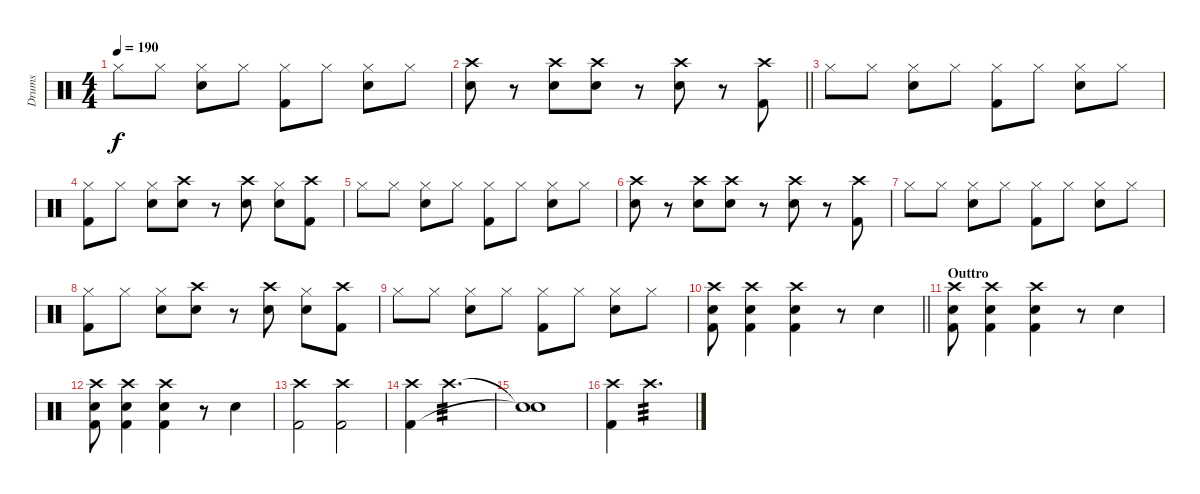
\track ("Drums" "Drums") {instrument percussion}
\staff {score}
\articulation defaults
\ts (4 4)
\tempo 190
\clef neutral
\ks c "Hi-Hat (closed)".8{dy f} "Hi-Hat (closed)".8
("Hi-Hat (closed)" "Snare (hit) 2").8 "Hi-Hat (closed)".8 ("Hi-Hat (closed)" "Kick (hit) 2").8 "Hi-Hat (closed)".8 ("Hi-Hat (closed)" "Snare (hit) 2").8 "Hi-Hat (closed)".8 |
\barLineRight lightlight
("Crash high (hit)" "Snare (hit) 2").8 r.8 ("Crash high (hit)" "Snare (hit) 2").8 ("Crash high (hit)" "Snare (hit) 2").8 r.8 ("Crash high (hit)" "Snare (hit) 2").8 r.8 ("Crash high (hit)" "Kick (hit) 2").8 |
"Hi-Hat (closed)".8 "Hi-Hat (closed)".8 ("Hi-Hat (closed)" "Snare (hit) 2").8 "Hi-Hat (closed)".8 ("Hi-Hat (closed)" "Kick (hit) 2").8 "Hi-Hat (closed)".8 ("Hi-Hat (closed)" "Snare (hit) 2").8 "Hi-Hat (closed)".8 |
("Hi-Hat (closed)" "Kick (hit) 2").8 "Hi-Hat (closed)".8 ("Hi-Hat (closed)" "Snare (hit) 2").8 ("Crash high (hit)" "Snare (hit) 2").8 r.8 ("Crash high (hit)" "Snare (hit) 2").8 ("Hi-Hat (closed)" "Snare (hit) 2").8 ("Crash high (hit)" "Kick (hit) 2").8 |
"Hi-Hat (closed)".8 "Hi-Hat (closed)".8 ("Hi-Hat (closed)" "Snare (hit) 2").8 "Hi-Hat (closed)".8 ("Hi-Hat (closed)" "Kick (hit) 2").8 "Hi-Hat (closed)".8 ("Hi-Hat (closed)" "Snare (hit) 2").8 "Hi-Hat (closed)".8 |
("Crash high (hit)" "Snare (hit) 2").8 r.8 ("Crash high (hit)" "Snare (hit) 2").8 ("Crash high (hit)" "Snare (hit) 2").8 r.8 ("Crash high (hit)" "Snare (hit) 2").8 r.8 ("Crash high (hit)" "Kick (hit) 2").8 |
"Hi-Hat (closed)".8 "Hi-Hat (closed)".8 ("Hi-Hat (closed)" "Snare (hit) 2").8 "Hi-Hat (closed)".8 ("Hi-Hat (closed)" "Kick (hit) 2").8 "Hi-Hat (closed)".8 ("Hi-Hat (closed)" "Snare (hit) 2").8 "Hi-Hat (closed)".8 |
("Hi-Hat (closed)" "Kick (hit) 2").8 "Hi-Hat (closed)".8 ("Hi-Hat (closed)" "Snare (hit) 2").8 ("Crash high (hit)" "Snare (hit) 2").8 r.8 ("Crash high (hit)" "Snare (hit) 2").8 ("Hi-Hat (closed)" "Snare (hit) 2").8 ("Crash high (hit)" "Kick (hit) 2").8 |
"Hi-Hat (closed)".8 "Hi-Hat (closed)".8 ("Hi-Hat (closed)" "Snare (hit) 2").8 "Hi-Hat (closed)".8 ("Hi-Hat (closed)" "Kick (hit) 2").8 "Hi-Hat (closed)".8 ("Hi-Hat (closed)" "Snare (hit) 2").8 "Hi-Hat (closed)".8 |
\barLineRight lightlight
("Snare (hit) 2" "Crash high (hit)" "Kick (hit) 2").8 ("Snare (hit) 2" "Crash high (hit)" "Kick (hit) 2").4 ("Snare (hit) 2" "Crash high (hit)" "Kick (hit) 2").4 r.8 "Snare (hit) 2".4 |
\section ("" "Outtro")
("Snare (hit) 2" "Crash high (hit)" "Kick (hit) 2").8 ("Snare (hit) 2" "Crash high (hit)" "Kick (hit) 2").4 ("Snare (hit) 2" "Crash high (hit)" "Kick (hit) 2").4 r.8 "Snare (hit) 2".4 |
("Snare (hit) 2" "Crash high (hit)" "Kick (hit) 2").8 ("Snare (hit) 2" "Crash high (hit)" "Kick (hit) 2").4 ("Snare (hit) 2" "Crash high (hit)" "Kick (hit) 2").4 r.8 "Snare (hit) 2".4 |
("Crash high (hit)" "Kick (hit) 2").2 ("Crash high (hit)" "Kick (hit) 2").2 |
("Crash high (hit)" "Kick (hit) 2").4 "Crash high (hit)".2{d tp 3} |
("Snare (hit)"{t} "Snare (hit)"{t}).1 |
("Crash high (hit)" "Kick (hit) 2").4 "Crash high (hit)".2{d tp 3}
